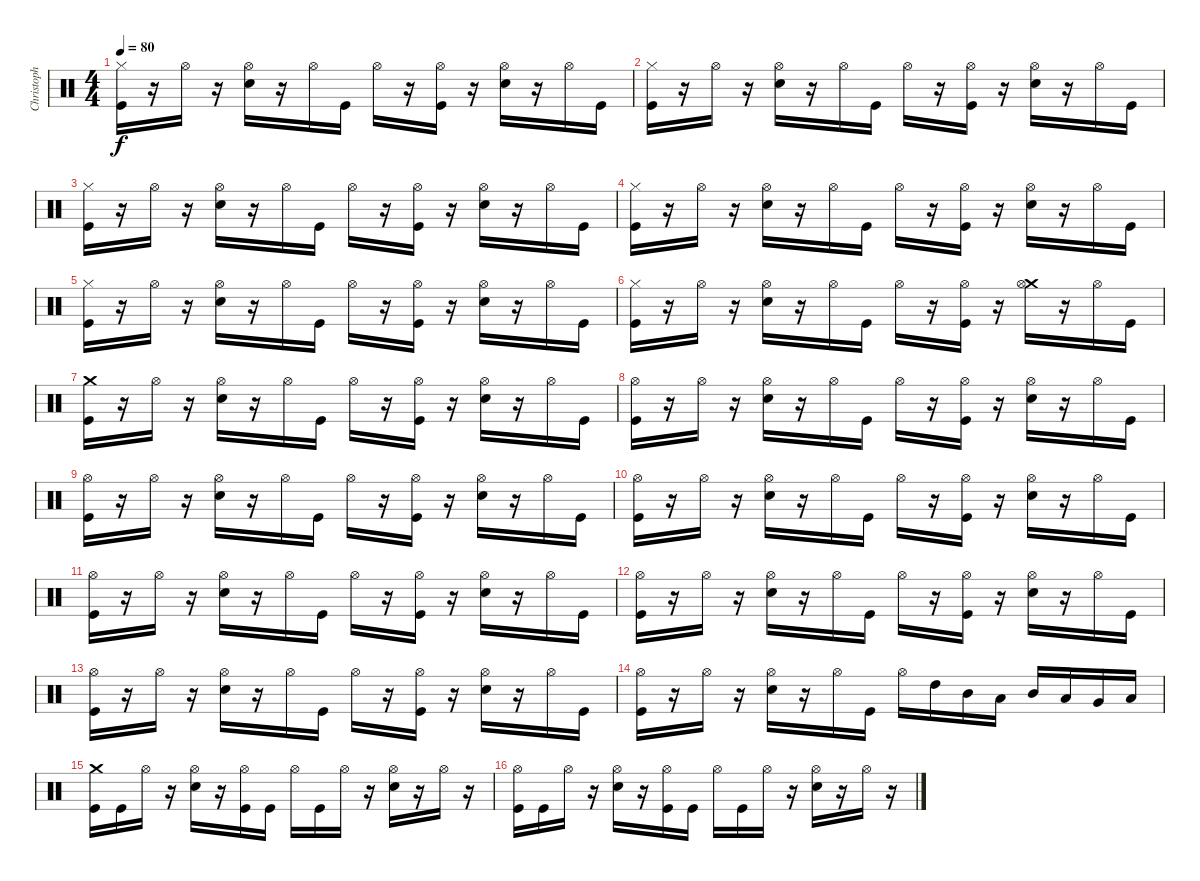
\track ("Christoph DOOM Schneider" "Christoph ") {instrument percussion}
\staff {score}
\articulation defaults
\ts (4 4)
\tempo 80
\clef neutral
\ks c
("Hi-Hat (closed)" "Kick (hit)").16{dy f} r.16 "Hi-Hat (open)".16 r.16 ("Electric Snare (hit)" "Hi-Hat (open)").16 r.16 "Hi-Hat (open)".16 "Kick (hit)".16 "Hi-Hat (open)".16 r.16 ("Hi-Hat (open)" "Kick (hit)").16 r.16 ("Electric Snare (hit)" "Hi-Hat (open)").16 r.16 "Hi-Hat (open)".16 "Kick (hit)".16 |
("Hi-Hat (closed)" "Kick (hit)").16 r.16 "Hi-Hat (open)".16 r.16 ("Electric Snare (hit)" "Hi-Hat (open)").16 r.16 "Hi-Hat (open)".16 "Kick (hit)".16 "Hi-Hat (open)".16 r.16 ("Hi-Hat (open)" "Kick (hit)").16 r.16 ("Electric Snare (hit)" "Hi-Hat (open)").16 r.16 "Hi-Hat (open)".16 "Kick (hit)".16 |
("Hi-Hat (closed)" "Kick (hit)").16 r.16 "Hi-Hat (open)".16 r.16 ("Electric Snare (hit)" "Hi-Hat (open)").16 r.16 "Hi-Hat (open)".16 "Kick (hit)".16 "Hi-Hat (open)".16 r.16 ("Hi-Hat (open)" "Kick (hit)").16 r.16 ("Electric Snare (hit)" "Hi-Hat (open)").16 r.16 "Hi-Hat (open)".16 "Kick (hit)".16 |
("Hi-Hat (closed)" "Kick (hit)").16 r.16 "Hi-Hat (open)".16 r.16 ("Electric Snare (hit)" "Hi-Hat (open)").16 r.16 "Hi-Hat (open)".16 "Kick (hit)".16 "Hi-Hat (open)".16 r.16 ("Hi-Hat (open)" "Kick (hit)").16 r.16 ("Electric Snare (hit)" "Hi-Hat (open)").16 r.16 "Hi-Hat (open)".16 "Kick (hit)".16 |
("Hi-Hat (closed)" "Kick (hit)").16 r.16 "Hi-Hat (open)".16 r.16 ("Electric Snare (hit)" "Hi-Hat (open)").16 r.16 "Hi-Hat (open)".16 "Kick (hit)".16 "Hi-Hat (open)".16 r.16 ("Hi-Hat (open)" "Kick (hit)").16 r.16 ("Electric Snare (hit)" "Hi-Hat (open)").16 r.16 "Hi-Hat (open)".16 "Kick (hit)".16 |
("Hi-Hat (closed)" "Kick (hit)").16 r.16 "Hi-Hat (open)".16 r.16 ("Electric Snare (hit)" "Hi-Hat (open)").16 r.16 "Hi-Hat (open)".16 "Kick (hit)".16 "Hi-Hat (open)".16 r.16 ("Hi-Hat (open)" "Kick (hit)").16 r.16 ("Crash medium (hit)" "Hi-Hat (open)").16 r.16 "Hi-Hat (open)".16 "Kick (hit)".16 |
("Crash medium (hit)" "Kick (hit)").16 r.16 "Hi-Hat (open)".16 r.16 ("Electric Snare (hit)" "Hi-Hat (open)").16 r.16 "Hi-Hat (open)".16 "Kick (hit)".16 "Hi-Hat (open)".16 r.16 ("Hi-Hat (open)" "Kick (hit)").16 r.16 ("Electric Snare (hit)" "Hi-Hat (open)").16 r.16 "Hi-Hat (open)".16 "Kick (hit)".16 |
("Hi-Hat (open)" "Kick (hit)").16 r.16 "Hi-Hat (open)".16 r.16 ("Electric Snare (hit)" "Hi-Hat (open)").16 r.16 "Hi-Hat (open)".16 "Kick (hit)".16 "Hi-Hat (open)".16 r.16 ("Hi-Hat (open)" "Kick (hit)").16 r.16 ("Electric Snare (hit)" "Hi-Hat (open)").16 r.16 "Hi-Hat (open)".16 "Kick (hit)".16 |
("Hi-Hat (open)" "Kick (hit)").16 r.16 "Hi-Hat (open)".16 r.16 ("Electric Snare (hit)" "Hi-Hat (open)").16 r.16 "Hi-Hat (open)".16 "Kick (hit)".16 "Hi-Hat (open)".16 r.16 ("Hi-Hat (open)" "Kick (hit)").16 r.16 ("Electric Snare (hit)" "Hi-Hat (open)").16 r.16 "Hi-Hat (open)".16 "Kick (hit)".16 |
("Hi-Hat (open)" "Kick (hit)").16 r.16 "Hi-Hat (open)".16 r.16 ("Electric Snare (hit)" "Hi-Hat (open)").16 r.16 "Hi-Hat (open)".16 "Kick (hit)".16 "Hi-Hat (open)".16 r.16 ("Hi-Hat (open)" "Kick (hit)").16 r.16 ("Electric Snare (hit)" "Hi-Hat (open)").16 r.16 "Hi-Hat (open)".16 "Kick (hit)".16 |
("Hi-Hat (open)" "Kick (hit)").16 r.16 "Hi-Hat (open)".16 r.16 ("Electric Snare (hit)" "Hi-Hat (open)").16 r.16 "Hi-Hat (open)".16 "Kick (hit)".16 "Hi-Hat (open)".16 r.16 ("Hi-Hat (open)" "Kick (hit)").16 r.16 ("Electric Snare (hit)" "Hi-Hat (open)").16 r.16 "Hi-Hat (open)".16 "Kick (hit)".16 |
("Hi-Hat (open)" "Kick (hit)").16 r.16 "Hi-Hat (open)".16 r.16 ("Electric Snare (hit)" "Hi-Hat (open)").16 r.16 "Hi-Hat (open)".16 "Kick (hit)".16 "Hi-Hat (open)".16 r.16 ("Hi-Hat (open)" "Kick (hit)").16 r.16 ("Electric Snare (hit)" "Hi-Hat (open)").16 r.16 "Hi-Hat (open)".16 "Kick (hit)".16 |
("Hi-Hat (open)" "Kick (hit)").16 r.16 "Hi-Hat (open)".16 r.16 ("Electric Snare (hit)" "Hi-Hat (open)").16 r.16 "Hi-Hat (open)".16 "Kick (hit)".16 "Hi-Hat (open)".16 r.16 ("Hi-Hat (open)" "Kick (hit)").16 r.16 ("Electric Snare (hit)" "Hi-Hat (open)").16 r.16 "Hi-Hat (open)".16 "Kick (hit)".16 |
("Hi-Hat (open)" "Kick (hit)").16 r.16 "Hi-Hat (open)".16 r.16 ("Electric Snare (hit)" "Hi-Hat (open)").16 r.16 "Hi-Hat (open)".16 "Kick (hit)".16 "Hi-Hat (open)".16 "High Tom (hit)".16 "Mid Tom (hit)".16 "Low Tom (hit)".16 "Mid Tom (hit)".16 "Low Tom (hit)".16 "Very Low Tom (hit)".16 "Low Floor Tom (hit)".16 |
("Crash medium (hit)" "Kick (hit)").16 "Kick (hit)".16 "Hi-Hat (open)".16 r.16 ("Electric Snare (hit)" "Hi-Hat (open)").16 r.16 ("Hi-Hat (open)" "Kick (hit)").16 "Kick (hit)".16 "Hi-Hat (open)".16 "Kick (hit)".16 "Hi-Hat (open)".16 r.16 ("Electric Snare (hit)" "Hi-Hat (open)").16 r.16 "Hi-Hat (open)".16 r.16 |
("Hi-Hat (open)" "Kick (hit)").16 "Kick (hit)".16 "Hi-Hat (open)".16 r.16 ("Electric Snare (hit)" "Hi-Hat (open)").16 r.16 ("Hi-Hat (open)" "Kick (hit)").16 "Kick (hit)".16 "Hi-Hat (open)".16 "Kick (hit)".16 "Hi-Hat (open)".16 r.16 ("Electric Snare (hit)" "Hi-Hat (open)").16 r.16 "Hi-Hat (open)".16 r.16
